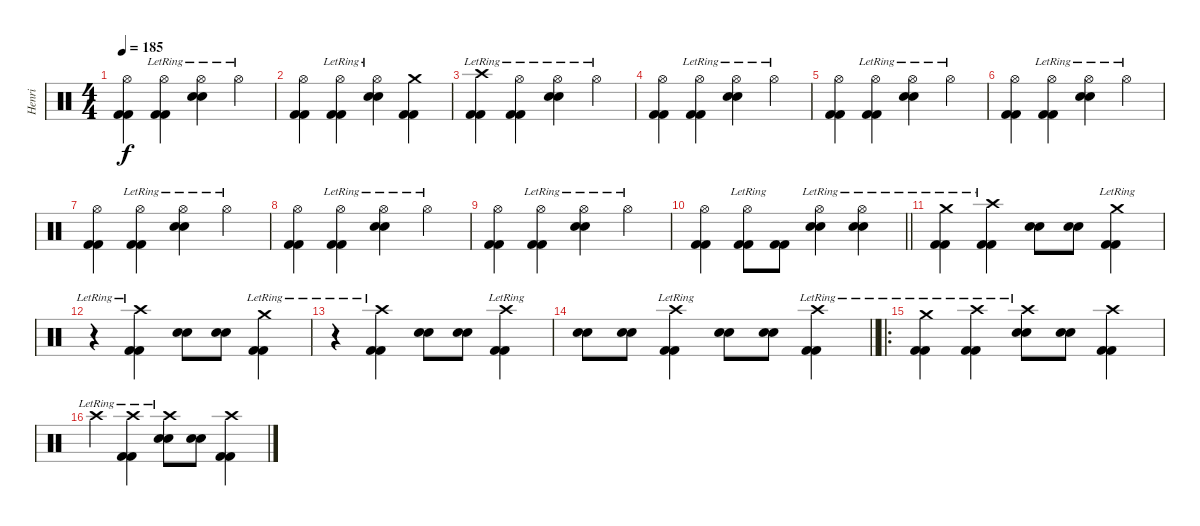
\track ("Henri" "Henri") {instrument percussion}
\staff {score}
\articulation defaults
\ts (4 4)
\tempo 185
\clef neutral
\ks c
("Hi-Hat (open)" "Kick (hit) 2" "Kick (hit) 2").4{dy f} ("Hi-Hat (open)"{lr} "Kick (hit) 2" "Kick (hit) 2").4 ("Hi-Hat (open)"{lr} "Snare (hit) 2" "Snare (hit) 2").4 "Hi-Hat (open)"{lr}.4 |
("Hi-Hat (open)" "Kick (hit) 2" "Kick (hit) 2").4 ("Hi-Hat (open)"{lr} "Kick (hit) 2" "Kick (hit) 2").4 ("Hi-Hat (open)"{lr} "Snare (hit) 2" "Snare (hit) 2").4 ("Crash medium (hit)" "Kick (hit) 2" "Kick (hit) 2").4 |
("Crash high (hit)"{lr} "Kick (hit) 2" "Kick (hit) 2").4 ("Hi-Hat (open)"{lr} "Kick (hit) 2" "Kick (hit) 2").4 ("Hi-Hat (open)"{lr} "Snare (hit) 2" "Snare (hit) 2").4 "Hi-Hat (open)"{lr}.4 |
("Hi-Hat (open)" "Kick (hit) 2" "Kick (hit) 2").4 ("Hi-Hat (open)"{lr} "Kick (hit) 2" "Kick (hit) 2").4 ("Hi-Hat (open)"{lr} "Snare (hit) 2" "Snare (hit) 2").4 "Hi-Hat (open)"{lr}.4 |
("Hi-Hat (open)" "Kick (hit) 2" "Kick (hit) 2").4 ("Hi-Hat (open)"{lr} "Kick (hit) 2" "Kick (hit) 2").4 ("Hi-Hat (open)"{lr} "Snare (hit) 2" "Snare (hit) 2").4 "Hi-Hat (open)"{lr}.4 |
("Hi-Hat (open)" "Kick (hit) 2" "Kick (hit) 2").4 ("Hi-Hat (open)"{lr} "Kick (hit) 2" "Kick (hit) 2").4 ("Hi-Hat (open)"{lr} "Snare (hit) 2" "Snare (hit) 2").4 "Hi-Hat (open)"{lr}.4 |
("Hi-Hat (open)" "Kick (hit) 2" "Kick (hit) 2").4 ("Hi-Hat (open)"{lr} "Kick (hit) 2" "Kick (hit) 2").4 ("Hi-Hat (open)"{lr} "Snare (hit) 2" "Snare (hit) 2").4 "Hi-Hat (open)"{lr}.4 |
("Hi-Hat (open)" "Kick (hit) 2" "Kick (hit) 2").4 ("Hi-Hat (open)"{lr} "Kick (hit) 2" "Kick (hit) 2").4 ("Hi-Hat (open)"{lr} "Snare (hit) 2" "Snare (hit) 2").4 "Hi-Hat (open)"{lr}.4 |
("Hi-Hat (open)" "Kick (hit) 2" "Kick (hit) 2").4 ("Hi-Hat (open)"{lr} "Kick (hit) 2" "Kick (hit) 2").4 ("Hi-Hat (open)"{lr} "Snare (hit) 2" "Snare (hit) 2").4 "Hi-Hat (open)"{lr}.4 |
\barLineRight lightlight
("Hi-Hat (open)" "Kick (hit) 2" "Kick (hit) 2").4 ("Hi-Hat (open)"{lr} "Kick (hit) 2" "Kick (hit) 2").8 ("Kick (hit) 2" "Kick (hit) 2").8 ("Hi-Hat (open)"{lr} "Snare (hit) 2" "Snare (hit) 2").4 ("Hi-Hat (open)"{lr} "Snare (hit) 2" "Snare (hit) 2").4 |
("Crash medium (hit)"{lr} "Kick (hit) 2" "Kick (hit) 2").4 ("Crash high (hit)"{lr} "Kick (hit) 2" "Kick (hit) 2").4 ("Snare (hit) 2" "Snare (hit) 2").8 ("Snare (hit) 2" "Snare (hit) 2").8 ("Crash medium (hit)"{lr} "Kick (hit) 2" "Kick (hit) 2").4 |
r.4 ("Crash high (hit)"{lr} "Kick (hit) 2" "Kick (hit) 2").4 ("Snare (hit) 2" "Snare (hit) 2").8 ("Snare (hit) 2" "Snare (hit) 2").8 ("Crash medium (hit)"{lr} "Kick (hit) 2" "Kick (hit) 2").4 |
r.4 ("Crash high (hit)"{lr} "Kick (hit) 2" "Kick (hit) 2").4 ("Snare (hit) 2" "Snare (hit) 2").8 ("Snare (hit) 2" "Snare (hit) 2").8 ("Crash high (hit)"{lr} "Kick (hit) 2" "Kick (hit) 2").4 |
\barLineRight lightlight
("Snare (hit) 2" "Snare (hit) 2").8 ("Snare (hit) 2" "Snare (hit) 2").8 ("Crash high (hit)"{lr} "Kick (hit) 2" "Kick (hit) 2").4 ("Snare (hit) 2" "Snare (hit) 2").8 ("Snare (hit) 2" "Snare (hit) 2").8 ("Crash high (hit)"{lr} "Kick (hit) 2" "Kick (hit) 2").4 |
\ro
("Crash medium (hit)"{lr} "Kick (hit) 2" "Kick (hit) 2").4 ("Crash high (hit)"{lr} "Kick (hit) 2" "Kick (hit) 2").4 ("Crash high (hit)"{lr} "Snare (hit) 2" "Snare (hit) 2").8 ("Snare (hit) 2" "Snare (hit) 2").8 ("Crash high (hit)" "Kick (hit) 2" "Kick (hit) 2").4 |
"Crash high (hit)"{lr}.4 ("Crash high (hit)"{lr} "Kick (hit) 2" "Kick (hit) 2").4 ("Crash high (hit)"{lr} "Snare (hit) 2" "Snare (hit) 2").8 ("Snare (hit) 2" "Snare (hit) 2").8 ("Crash high (hit)" "Kick (hit) 2" "Kick (hit) 2").4
